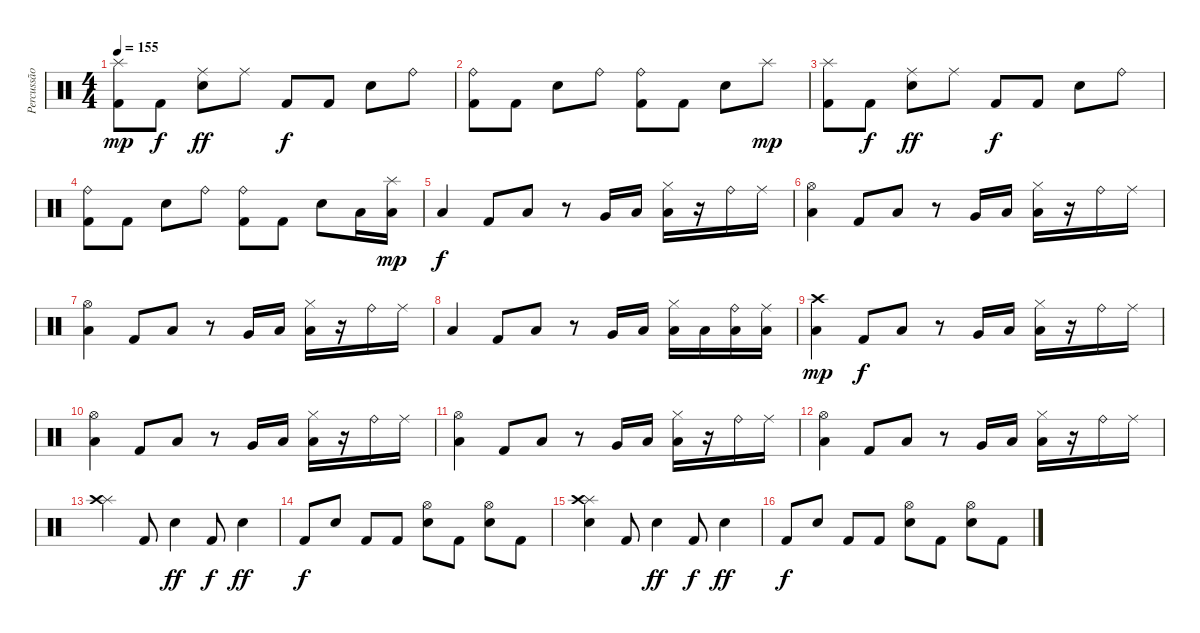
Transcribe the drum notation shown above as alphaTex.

\track ("Percussão" "Percussão") {instrument percussion}
\staff {score}
\articulation defaults
\ts (4 4)
\tempo 155
\clef neutral
\ks c
("Splash (hit)" "Kick (hit) 2").8{dy mp} "Kick (hit) 2".8{dy f} ("Ride (middle)" "Electric Snare (hit)").8{dy ff} "Ride (middle)".8 "Kick (hit) 2".8{dy f} "Kick (hit) 2".8 "Electric Snare (hit)".8 "Ride (bell)".8 |
("Ride (bell)" "Kick (hit) 2").8 "Kick (hit) 2".8 "Electric Snare (hit)".8 "Ride (bell)".8 ("Ride (bell)" "Kick (hit) 2").8 "Kick (hit) 2".8 "Electric Snare (hit)".8 "Splash (hit)".8{dy mp} |
("Splash (hit)" "Kick (hit) 2").8 "Kick (hit) 2".8{dy f} ("Ride (middle)" "Electric Snare (hit)").8{dy ff} "Ride (middle)".8 "Kick (hit) 2".8{dy f} "Kick (hit) 2".8 "Electric Snare (hit)".8 "Ride (bell)".8 |
("Ride (bell)" "Kick (hit) 2").8 "Kick (hit) 2".8 "Electric Snare (hit)".8 "Ride (bell)".8 ("Ride (bell)" "Kick (hit) 2").8 "Kick (hit) 2".8 "Electric Snare (hit)".8 "Low Tom (hit)".16 ("Splash (hit)" "Low Tom (hit)").16{dy mp} |
"Low Tom (hit)".4{dy f} "Kick (hit) 2".8 "Low Tom (hit)".8 r.8 "Very Low Tom (hit)".16 "Low Tom (hit)".16 ("Hi-Hat (closed)" "Low Tom (hit)").16 r.16 "Ride (bell)".16 "Ride (middle)".16 |
("Hi-Hat (open)" "Low Tom (hit)").4 "Kick (hit) 2".8 "Low Tom (hit)".8 r.8 "Very Low Tom (hit)".16 "Low Tom (hit)".16 ("Hi-Hat (closed)" "Low Tom (hit)").16 r.16 "Ride (bell)".16 "Ride (middle)".16 |
("Hi-Hat (open)" "Low Tom (hit)").4 "Kick (hit) 2".8 "Low Tom (hit)".8 r.8 "Very Low Tom (hit)".16 "Low Tom (hit)".16 ("Hi-Hat (closed)" "Low Tom (hit)").16 r.16 "Ride (bell)".16 "Ride (middle)".16 |
"Low Tom (hit)".4 "Kick (hit) 2".8 "Low Tom (hit)".8 r.8 "Very Low Tom (hit)".16 "Low Tom (hit)".16 ("Hi-Hat (closed)" "Low Tom (hit)").16 "Low Tom (hit)".16 ("Ride (bell)" "Low Tom (hit)").16 ("Ride (middle)" "Low Tom (hit)").16 |
("Crash high (hit)" "Low Tom (hit)").4{dy mp} "Kick (hit) 2".8{dy f} "Low Tom (hit)".8 r.8 "Very Low Tom (hit)".16 "Low Tom (hit)".16 ("Hi-Hat (closed)" "Low Tom (hit)").16 r.16 "Ride (bell)".16 "Ride (middle)".16 |
("Hi-Hat (open)" "Low Tom (hit)").4 "Kick (hit) 2".8 "Low Tom (hit)".8 r.8 "Very Low Tom (hit)".16 "Low Tom (hit)".16 ("Hi-Hat (closed)" "Low Tom (hit)").16 r.16 "Ride (bell)".16 "Ride (middle)".16 |
("Hi-Hat (open)" "Low Tom (hit)").4 "Kick (hit) 2".8 "Low Tom (hit)".8 r.8 "Very Low Tom (hit)".16 "Low Tom (hit)".16 ("Hi-Hat (closed)" "Low Tom (hit)").16 r.16 "Ride (bell)".16 "Ride (middle)".16 |
("Hi-Hat (open)" "Low Tom (hit)").4 "Kick (hit) 2".8 "Low Tom (hit)".8 r.8 "Very Low Tom (hit)".16 "Low Tom (hit)".16 ("Hi-Hat (closed)" "Low Tom (hit)").16 r.16 "Ride (bell)".16 "Ride (middle)".16 |
("Splash (hit)" "Crash high (hit)").4 "Kick (hit) 2".8 "Electric Snare (hit)".4{dy ff} "Kick (hit) 2".8{dy f} "Electric Snare (hit)".4{dy ff} |
"Kick (hit) 2".8{dy f} "Electric Snare (hit)".8 "Kick (hit) 2".8 "Kick (hit) 2".8 ("Hi-Hat (open)" "Electric Snare (hit)").8 "Kick (hit) 2".8 ("Hi-Hat (open)" "Electric Snare (hit)").8 "Kick (hit) 2".8 |
("Splash (hit)" "Crash high (hit)" "Electric Snare (hit)").4 "Kick (hit) 2".8 "Electric Snare (hit)".4{dy ff} "Kick (hit) 2".8{dy f} "Electric Snare (hit)".4{dy ff} |
"Kick (hit) 2".8{dy f} "Electric Snare (hit)".8 "Kick (hit) 2".8 "Kick (hit) 2".8 ("Hi-Hat (open)" "Electric Snare (hit)").8 "Kick (hit) 2".8 ("Hi-Hat (open)" "Electric Snare (hit)").8 "Kick (hit) 2".8
